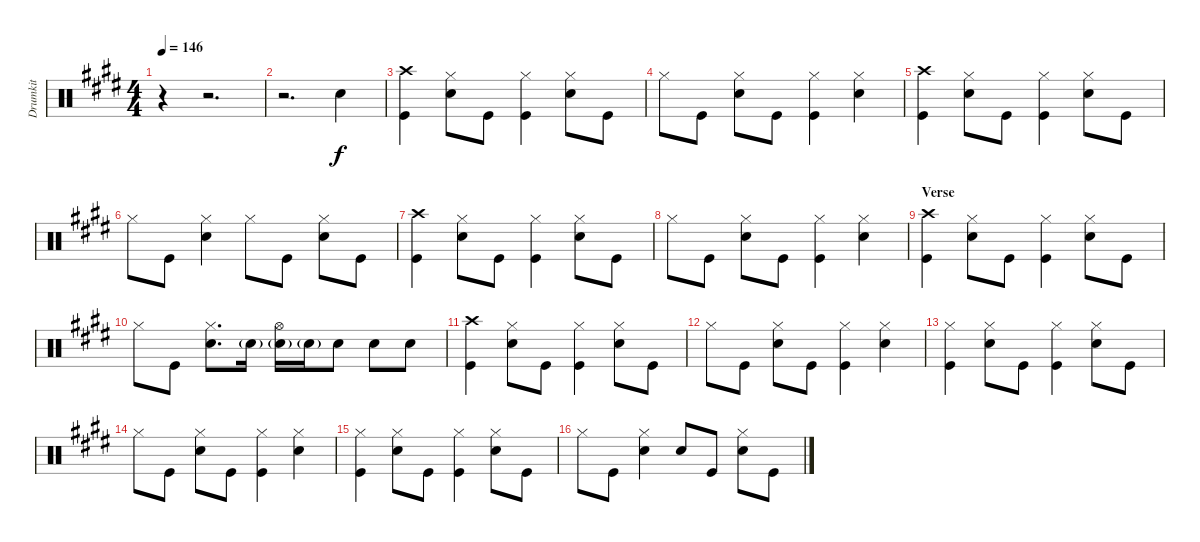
\track ("Drumkit" "Drumkit") {instrument percussion}
\staff {score}
\articulation defaults
\ts (4 4)
\tempo 146
\clef neutral
\ks e
r.4{dy f} r.2{d} |
r.2{d} "Snare (hit) 2".4 |
("Kick (hit)" "Crash high (hit)").4 ("Snare (hit) 2" "Hi-Hat (closed)").8 "Kick (hit)".8 ("Kick (hit)" "Hi-Hat (closed)").4 ("Snare (hit) 2" "Hi-Hat (closed)").8 "Kick (hit)".8 |
"Hi-Hat (closed)".8 "Kick (hit)".8 ("Snare (hit) 2" "Hi-Hat (closed)").8 "Kick (hit)".8 ("Kick (hit)" "Hi-Hat (closed)").4 ("Snare (hit) 2" "Hi-Hat (closed)").4 |
("Kick (hit)" "Crash high (hit)").4 ("Snare (hit) 2" "Hi-Hat (closed)").8 "Kick (hit)".8 ("Kick (hit)" "Hi-Hat (closed)").4 ("Snare (hit) 2" "Hi-Hat (closed)").8 "Kick (hit)".8 |
"Hi-Hat (closed)".8 "Kick (hit)".8 ("Snare (hit) 2" "Hi-Hat (closed)").4 "Hi-Hat (closed)".8 "Kick (hit)".8 ("Snare (hit) 2" "Hi-Hat (closed)").8 "Kick (hit)".8 |
("Kick (hit)" "Crash high (hit)").4 ("Snare (hit) 2" "Hi-Hat (closed)").8 "Kick (hit)".8 ("Kick (hit)" "Hi-Hat (closed)").4 ("Snare (hit) 2" "Hi-Hat (closed)").8 "Kick (hit)".8 |
"Hi-Hat (closed)".8 "Kick (hit)".8 ("Snare (hit) 2" "Hi-Hat (closed)").8 "Kick (hit)".8 ("Kick (hit)" "Hi-Hat (closed)").4 ("Snare (hit) 2" "Hi-Hat (closed)").4 |
\section ("" "Verse")
("Kick (hit)" "Crash high (hit)").4 ("Snare (hit) 2" "Hi-Hat (closed)").8 "Kick (hit)".8 ("Kick (hit)" "Hi-Hat (closed)").4 ("Snare (hit) 2" "Hi-Hat (closed)").8 "Kick (hit)".8 |
"Hi-Hat (closed)".8 "Kick (hit)".8 ("Snare (hit) 2" "Hi-Hat (closed)").8{d} "Snare (hit) 2"{g}.16 ("Snare (hit) 2"{g} "Hi-Hat (open)").16 "Snare (hit) 2"{g}.16 "Snare (hit) 2".8 "Snare (hit) 2".8 "Snare (hit) 2".8 |
("Kick (hit)" "Crash high (hit)").4 ("Snare (hit) 2" "Hi-Hat (closed)").8 "Kick (hit)".8 ("Kick (hit)" "Hi-Hat (closed)").4 ("Snare (hit) 2" "Hi-Hat (closed)").8 "Kick (hit)".8 |
"Hi-Hat (closed)".8 "Kick (hit)".8 ("Snare (hit) 2" "Hi-Hat (closed)").8 "Kick (hit)".8 ("Kick (hit)" "Hi-Hat (closed)").4 ("Snare (hit) 2" "Hi-Hat (closed)").4 |
("Kick (hit)" "Hi-Hat (closed)").4 ("Snare (hit) 2" "Hi-Hat (closed)").8 "Kick (hit)".8 ("Kick (hit)" "Hi-Hat (closed)").4 ("Snare (hit) 2" "Hi-Hat (closed)").8 "Kick (hit)".8 |
"Hi-Hat (closed)".8 "Kick (hit)".8 ("Snare (hit) 2" "Hi-Hat (closed)").8 "Kick (hit)".8 ("Kick (hit)" "Hi-Hat (closed)").4 ("Snare (hit) 2" "Hi-Hat (closed)").4 |
("Kick (hit)" "Hi-Hat (closed)").4 ("Snare (hit) 2" "Hi-Hat (closed)").8 "Kick (hit)".8 ("Kick (hit)" "Hi-Hat (closed)").4 ("Snare (hit) 2" "Hi-Hat (closed)").8 "Kick (hit)".8 |
"Hi-Hat (closed)".8 "Kick (hit)".8 ("Snare (hit) 2" "Hi-Hat (closed)").4 "Snare (hit) 2".8 "Kick (hit)".8 ("Snare (hit) 2" "Hi-Hat (closed)").8 "Kick (hit)".8
